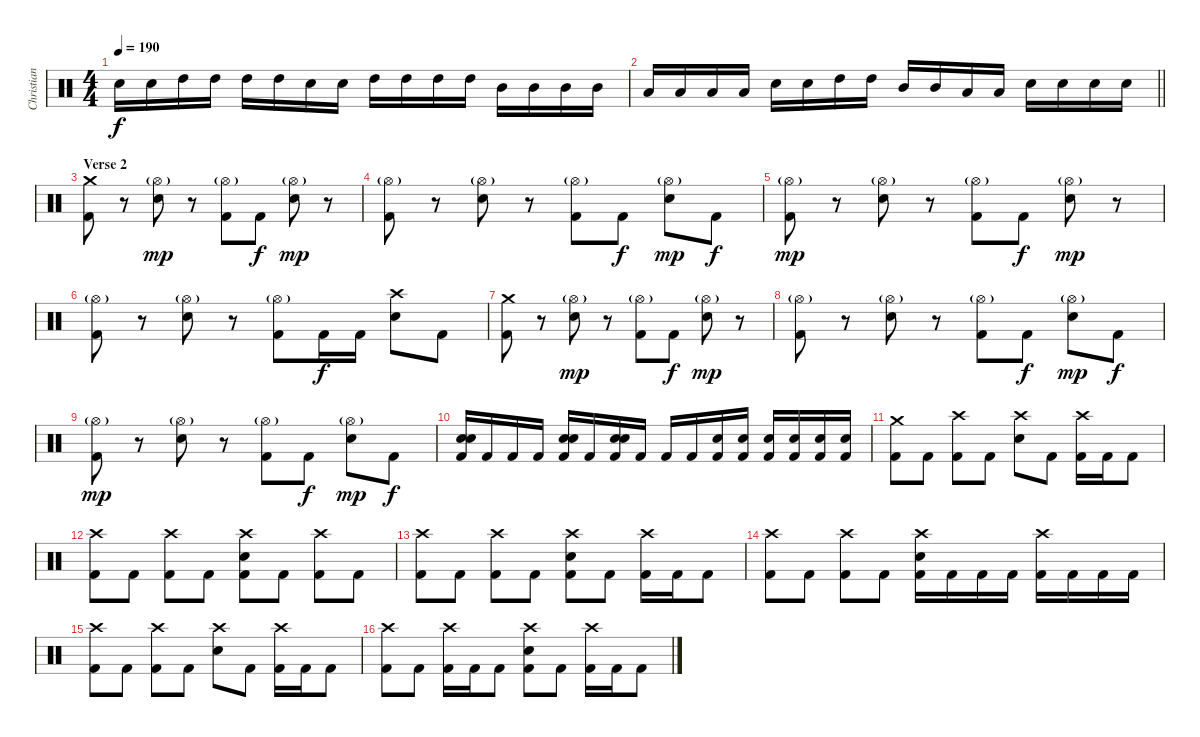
\track ("Christian" "Christian") {instrument percussion}
\staff {score}
\articulation defaults
\ts (4 4)
\tempo 190
\clef neutral
\ks c "Electric Snare (hit)".16{dy f} "Electric Snare (hit)".16 "High Tom (hit)".16 "High Tom (hit)".16 "High Tom (hit)".16 "High Tom (hit)".16 "Electric Snare (hit)".16 "Electric Snare (hit)".16 "High Tom (hit)".16 "High Tom (hit)".16 "High Tom (hit)".16 "High Tom (hit)".16 "Mid Tom (hit)".16 "Mid Tom (hit)".16 "Mid Tom (hit)".16 "Mid Tom (hit)".16
|
\barLineRight lightlight "Low Tom (hit)".16 "Low Tom (hit)".16 "Low Tom (hit)".16 "Low Tom (hit)".16 "Electric Snare (hit)".16 "Electric Snare (hit)".16 "High Tom (hit)".16 "High Tom (hit)".16 "Mid Tom (hit)".16 "Mid Tom (hit)".16 "Low Tom (hit)".16 "Low Tom (hit)".16 "Electric Snare (hit)".16 "Electric Snare (hit)".16 "Electric Snare (hit)".16 "Electric Snare (hit)".16
|
\section ("" "Verse 2")
("Crash medium (hit)" "Kick (hit) 2").8 r.8 ("Hi-Hat (open)"{g} "Electric Snare (hit)").8{dy mp} r.8 ("Hi-Hat (open)"{g} "Kick (hit) 2").8 "Kick (hit) 2".8{dy f} ("Hi-Hat (open)"{g} "Electric Snare (hit)").8{dy mp} r.8 |
("Hi-Hat (open)"{g} "Kick (hit) 2").8 r.8 ("Hi-Hat (open)"{g} "Electric Snare (hit)").8 r.8 ("Hi-Hat (open)"{g} "Kick (hit) 2").8 "Kick (hit) 2".8{dy f} ("Hi-Hat (open)"{g} "Electric Snare (hit)").8{dy mp} "Kick (hit) 2".8{dy f} |
("Hi-Hat (open)"{g} "Kick (hit) 2").8{dy mp} r.8 ("Hi-Hat (open)"{g} "Electric Snare (hit)").8 r.8 ("Hi-Hat (open)"{g} "Kick (hit) 2").8 "Kick (hit) 2".8{dy f} ("Hi-Hat (open)"{g} "Electric Snare (hit)").8{dy mp} r.8 |
("Hi-Hat (open)"{g} "Kick (hit) 2").8 r.8 ("Hi-Hat (open)"{g} "Electric Snare (hit)").8 r.8 ("Hi-Hat (open)"{g} "Kick (hit) 2").8 "Kick (hit) 2".16{dy f} "Kick (hit) 2".16 ("Crash high (hit)" "Electric Snare (hit)").8 "Kick (hit) 2".8 |
("Crash medium (hit)" "Kick (hit) 2").8 r.8 ("Hi-Hat (open)"{g} "Electric Snare (hit)").8{dy mp} r.8 ("Hi-Hat (open)"{g} "Kick (hit) 2").8 "Kick (hit) 2".8{dy f} ("Hi-Hat (open)"{g} "Electric Snare (hit)").8{dy mp} r.8 |
("Hi-Hat (open)"{g} "Kick (hit) 2").8 r.8 ("Hi-Hat (open)"{g} "Electric Snare (hit)").8 r.8 ("Hi-Hat (open)"{g} "Kick (hit) 2").8 "Kick (hit) 2".8{dy f} ("Hi-Hat (open)"{g} "Electric Snare (hit)").8{dy mp} "Kick (hit) 2".8{dy f} |
("Hi-Hat (open)"{g} "Kick (hit) 2").8{dy mp} r.8 ("Hi-Hat (open)"{g} "Electric Snare (hit)").8 r.8 ("Hi-Hat (open)"{g} "Kick (hit) 2").8 "Kick (hit) 2".8{dy f} ("Hi-Hat (open)"{g} "Electric Snare (hit)").8{dy mp} "Kick (hit) 2".8{dy f} |
("Electric Snare (hit)" "Electric Snare (hit)" "Kick (hit) 2").16 "Kick (hit) 2".16 "Kick (hit) 2".16 "Kick (hit) 2".16 ("Electric Snare (hit)" "Electric Snare (hit)" "Kick (hit) 2").16 "Kick (hit) 2".16 ("Electric Snare (hit)" "Electric Snare (hit)" "Kick (hit) 2").16 "Kick (hit) 2".16 "Kick (hit) 2".16 "Kick (hit) 2".16 ("Electric Snare (hit)" "Kick (hit) 2").16 ("Electric Snare (hit)" "Kick (hit) 2").16 ("Electric Snare (hit)" "Kick (hit) 2").16 ("Electric Snare (hit)" "Kick (hit) 2").16 ("Electric Snare (hit)" "Kick (hit) 2").16 ("Electric Snare (hit)" "Kick (hit) 2").16 |
("Crash medium (hit)" "Kick (hit) 2").8 "Kick (hit) 2".8 ("Crash high (hit)" "Kick (hit) 2").8 "Kick (hit) 2".8 ("Crash high (hit)" "Electric Snare (hit)").8 "Kick (hit) 2".8 ("Crash high (hit)" "Kick (hit) 2").16 "Kick (hit) 2".16 "Kick (hit) 2".8 |
("Crash high (hit)" "Kick (hit) 2").8 "Kick (hit) 2".8 ("Crash high (hit)" "Kick (hit) 2").8 "Kick (hit) 2".8 ("Crash high (hit)" "Electric Snare (hit)" "Kick (hit) 2").8 "Kick (hit) 2".8 ("Crash high (hit)" "Kick (hit) 2").8 "Kick (hit) 2".8 |
("Crash high (hit)" "Kick (hit) 2").8 "Kick (hit) 2".8 ("Crash high (hit)" "Kick (hit) 2").8 "Kick (hit) 2".8 ("Crash high (hit)" "Electric Snare (hit)" "Kick (hit) 2").8 "Kick (hit) 2".8 ("Crash high (hit)" "Kick (hit) 2").16 "Kick (hit) 2".16 "Kick (hit) 2".8 |
("Crash high (hit)" "Kick (hit) 2").8 "Kick (hit) 2".8 ("Crash high (hit)" "Kick (hit) 2").8 "Kick (hit) 2".8 ("Crash high (hit)" "Electric Snare (hit)" "Kick (hit) 2").16 "Kick (hit) 2".16 "Kick (hit) 2".16 "Kick (hit) 2".16 ("Crash high (hit)" "Kick (hit) 2").16 "Kick (hit) 2".16 "Kick (hit) 2".16 "Kick (hit) 2".16 |
("Crash high (hit)" "Kick (hit) 2").8 "Kick (hit) 2".8 ("Crash high (hit)" "Kick (hit) 2").8 "Kick (hit) 2".8 ("Crash high (hit)" "Electric Snare (hit)").8 "Kick (hit) 2".8 ("Crash high (hit)" "Kick (hit) 2").16 "Kick (hit) 2".16 "Kick (hit) 2".8 |
("Crash high (hit)" "Kick (hit) 2").8 "Kick (hit) 2".8 ("Crash high (hit)" "Kick (hit) 2").16 "Kick (hit) 2".16 "Kick (hit) 2".8 ("Crash high (hit)" "Electric Snare (hit)" "Kick (hit) 2").8 "Kick (hit) 2".8 ("Crash high (hit)" "Kick (hit) 2").16 "Kick (hit) 2".16 "Kick (hit) 2".8
